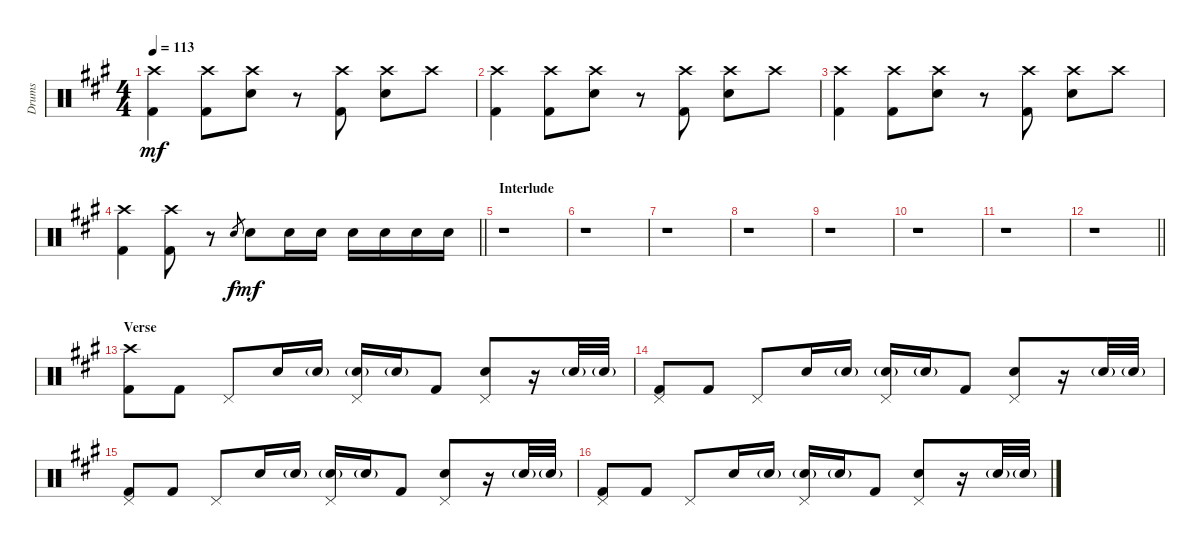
\track ("Drums" "Drums") {instrument percussion}
\staff {score}
\articulation defaults
\ts (4 4)
\tempo 113
\clef neutral
\ks f#minor
("Crash high (hit)" "Kick (hit) 2").4{dy mf} ("Crash high (hit)" "Kick (hit) 2").8 ("Crash high (hit)" "Snare (hit) 2").8 r.8 ("Crash high (hit)" "Kick (hit) 2").8 ("Crash high (hit)" "Snare (hit) 2").8 "Crash high (hit)".8 |
("Crash high (hit)" "Kick (hit) 2").4 ("Crash high (hit)" "Kick (hit) 2").8 ("Crash high (hit)" "Snare (hit) 2").8 r.8 ("Crash high (hit)" "Kick (hit) 2").8 ("Crash high (hit)" "Snare (hit) 2").8 "Crash high (hit)".8 |
("Crash high (hit)" "Kick (hit) 2").4 ("Crash high (hit)" "Kick (hit) 2").8 ("Crash high (hit)" "Snare (hit) 2").8 r.8 ("Crash high (hit)" "Kick (hit) 2").8 ("Crash high (hit)" "Snare (hit) 2").8 "Crash high (hit)".8 |
\barLineRight lightlight
("Crash high (hit)" "Kick (hit) 2").4 ("Crash high (hit)" "Kick (hit) 2").8 r.8 "Snare (hit) 2".8{gr dy f} "Snare (hit) 2".8{dy mf} "Snare (hit) 2".16 "Snare (hit) 2".16 "Snare (hit) 2".16 "Snare (hit) 2".16 "Snare (hit) 2".16 "Snare (hit) 2".16 |
\section ("" "Interlude")
r.1 |
r.1 |
r.1 |
r.1 |
r.1 |
r.1 |
r.1 |
\barLineRight lightlight
r.1 |
\section ("" "Verse")
("Crash high (hit)" "Kick (hit) 2").8 "Kick (hit) 2".8 "Pedal Hi-Hat (hit)".8 "Snare (hit) 2".16 "Snare (hit) 2"{g}.16 ("Pedal Hi-Hat (hit)" "Snare (hit) 2"{g}).16 "Snare (hit) 2"{g}.16 "Kick (hit) 2".8 ("Pedal Hi-Hat (hit)" "Snare (hit) 2").8 r.16 "Snare (hit) 2"{g}.32 "Snare (hit) 2"{g}.32 |
("Pedal Hi-Hat (hit)" "Kick (hit) 2").8 "Kick (hit) 2".8 "Pedal Hi-Hat (hit)".8 "Snare (hit) 2".16 "Snare (hit) 2"{g}.16 ("Pedal Hi-Hat (hit)" "Snare (hit) 2"{g}).16 "Snare (hit) 2"{g}.16 "Kick (hit) 2".8 ("Pedal Hi-Hat (hit)" "Snare (hit) 2").8 r.16 "Snare (hit) 2"{g}.32 "Snare (hit) 2"{g}.32 |
("Pedal Hi-Hat (hit)" "Kick (hit) 2").8 "Kick (hit) 2".8 "Pedal Hi-Hat (hit)".8 "Snare (hit) 2".16 "Snare (hit) 2"{g}.16 ("Pedal Hi-Hat (hit)" "Snare (hit) 2"{g}).16 "Snare (hit) 2"{g}.16 "Kick (hit) 2".8 ("Pedal Hi-Hat (hit)" "Snare (hit) 2").8 r.16 "Snare (hit) 2"{g}.32 "Snare (hit) 2"{g}.32 |
("Pedal Hi-Hat (hit)" "Kick (hit) 2").8 "Kick (hit) 2".8 "Pedal Hi-Hat (hit)".8 "Snare (hit) 2".16 "Snare (hit) 2"{g}.16 ("Pedal Hi-Hat (hit)" "Snare (hit) 2"{g}).16 "Snare (hit) 2"{g}.16 "Kick (hit) 2".8 ("Pedal Hi-Hat (hit)" "Snare (hit) 2").8 r.16 "Snare (hit) 2"{g}.32 "Snare (hit) 2"{g}.32
